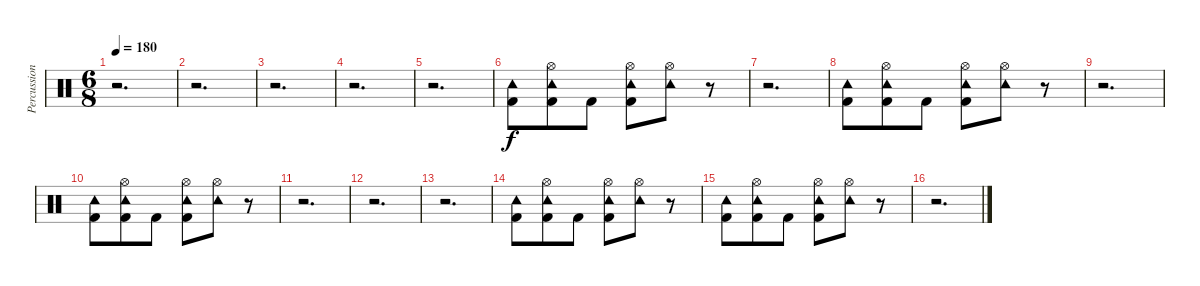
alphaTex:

\track ("Percussion" "Percussion") {instrument percussion}
\staff {score}
\articulation defaults
\ts (6 8)
\tempo 180
\clef neutral
\ks c
r.2{d dy f} |
r.2{d} |
r.2{d} |
r.2{d} |
r.2{d} |
("Kick (hit) 2" "Tambourine (hit)").8 ("Kick (hit) 2" "Hi-Hat (open)" "Tambourine (hit)").8 "Kick (hit) 2".8 ("Kick (hit) 2" "Hi-Hat (open)" "Tambourine (hit)").8 ("Hi-Hat (open)" "Tambourine (hit)").8 r.8 |
r.2{d} |
("Kick (hit) 2" "Tambourine (hit)").8 ("Kick (hit) 2" "Hi-Hat (open)" "Tambourine (hit)").8 "Kick (hit) 2".8 ("Kick (hit) 2" "Hi-Hat (open)" "Tambourine (hit)").8 ("Hi-Hat (open)" "Tambourine (hit)").8 r.8 |
r.2{d} |
("Kick (hit) 2" "Tambourine (hit)").8 ("Kick (hit) 2" "Hi-Hat (open)" "Tambourine (hit)").8 "Kick (hit) 2".8 ("Kick (hit) 2" "Hi-Hat (open)" "Tambourine (hit)").8 ("Hi-Hat (open)" "Tambourine (hit)").8 r.8 |
r.2{d} |
r.2{d} |
r.2{d} |
("Kick (hit) 2" "Tambourine (hit)").8 ("Kick (hit) 2" "Hi-Hat (open)" "Tambourine (hit)").8 "Kick (hit) 2".8 ("Kick (hit) 2" "Hi-Hat (open)" "Tambourine (hit)").8 ("Hi-Hat (open)" "Tambourine (hit)").8 r.8 |
("Kick (hit) 2" "Tambourine (hit)").8 ("Kick (hit) 2" "Hi-Hat (open)" "Tambourine (hit)").8 "Kick (hit) 2".8 ("Kick (hit) 2" "Hi-Hat (open)" "Tambourine (hit)").8 ("Hi-Hat (open)" "Tambourine (hit)").8 r.8 |
r.2{d}
